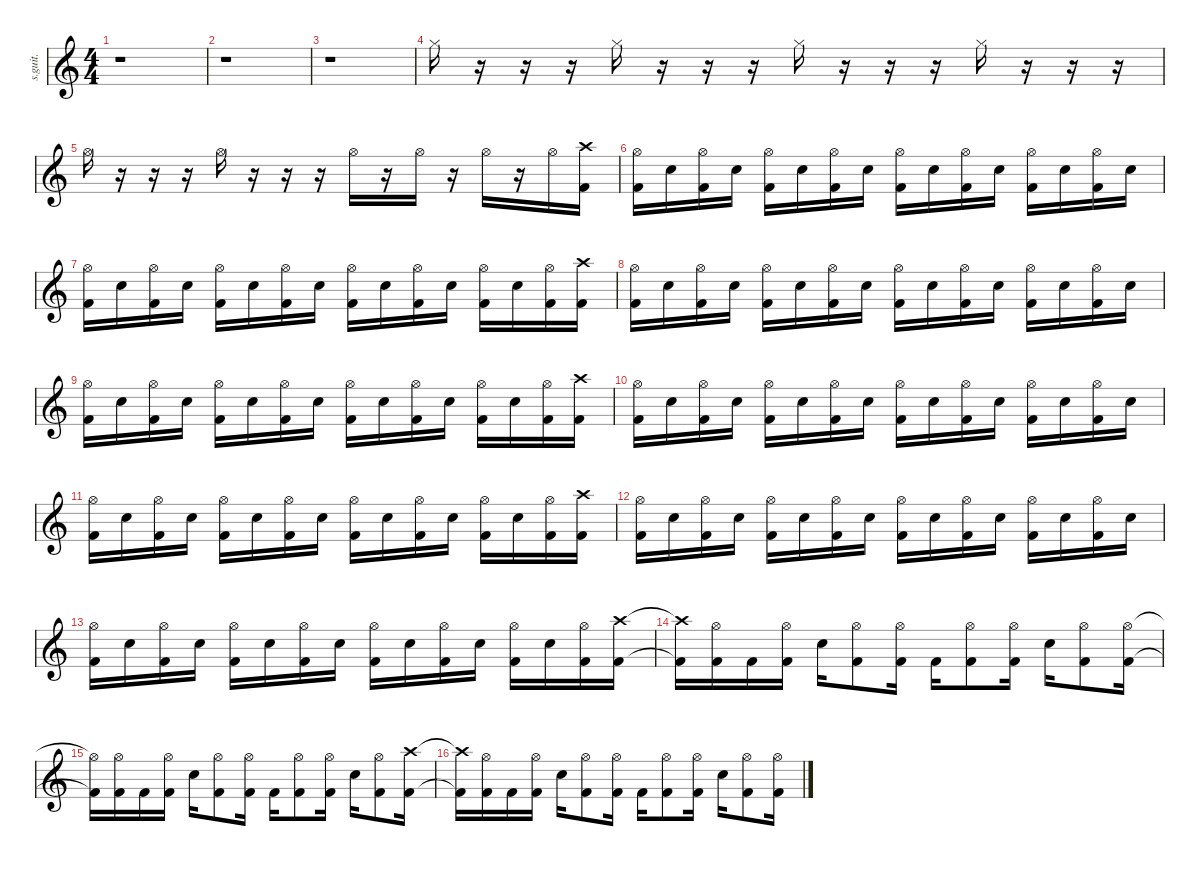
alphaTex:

\defaultSystemsLayout 4
\hideDynamics
\bracketExtendMode nobrackets
\track ("Tomas Haake" "s.guit.") {instrument percussion}
\staff {score}
\articulation defaults
\ts (4 4)
\beaming (8 2 2 2 2)
\tempo (110 hide)
\clef g2
\ks c
r.1{dy f} |
r.1 |
r.1 |
"Hi-Hat (closed)".16{lyrics (0 "") lyrics (1 "") lyrics (2 "") lyrics (3 "") lyrics (4 "")} r.16 r.16 r.16 "Hi-Hat (closed)".16{lyrics (0 "") lyrics (1 "") lyrics (2 "") lyrics (3 "") lyrics (4 "")} r.16 r.16 r.16 "Hi-Hat (closed)".16{lyrics (0 "") lyrics (1 "") lyrics (2 "") lyrics (3 "") lyrics (4 "")} r.16 r.16 r.16 "Hi-Hat (closed)".16{lyrics (0 "") lyrics (1 "") lyrics (2 "") lyrics (3 "") lyrics (4 "")} r.16 r.16 r.16 |
"Hi-Hat (open)".16{lyrics (0 "") lyrics (1 "") lyrics (2 "") lyrics (3 "") lyrics (4 "")} r.16 r.16 r.16 "Hi-Hat (open)".16{lyrics (0 "") lyrics (1 "") lyrics (2 "") lyrics (3 "") lyrics (4 "")} r.16 r.16 r.16 "Hi-Hat (open)".16{lyrics (0 "") lyrics (1 "") lyrics (2 "") lyrics (3 "") lyrics (4 "")} r.16 "Hi-Hat (open)".16{lyrics (0 "") lyrics (1 "") lyrics (2 "") lyrics (3 "") lyrics (4 "")} r.16 "Hi-Hat (open)".16{lyrics (0 "") lyrics (1 "") lyrics (2 "") lyrics (3 "") lyrics (4 "")} r.16 "Hi-Hat (open)".16{lyrics (0 "") lyrics (1 "") lyrics (2 "") lyrics (3 "") lyrics (4 "")} ("Crash high (hit)" "Kick (hit) 2").16{lyrics (0 "") lyrics (1 "") lyrics (2 "") lyrics (3 "") lyrics (4 "")} |
("Hi-Hat (open)" "Kick (hit) 2").16{lyrics (0 "") lyrics (1 "") lyrics (2 "") lyrics (3 "") lyrics (4 "")} "Snare (hit) 2".16{lyrics (0 "") lyrics (1 "") lyrics (2 "") lyrics (3 "") lyrics (4 "")} ("Hi-Hat (open)" "Kick (hit) 2").16{lyrics (0 "") lyrics (1 "") lyrics (2 "") lyrics (3 "") lyrics (4 "")} "Snare (hit) 2".16{lyrics (0 "") lyrics (1 "") lyrics (2 "") lyrics (3 "") lyrics (4 "")} ("Hi-Hat (open)" "Kick (hit) 2").16{lyrics (0 "") lyrics (1 "") lyrics (2 "") lyrics (3 "") lyrics (4 "")} "Snare (hit) 2".16{lyrics (0 "") lyrics (1 "") lyrics (2 "") lyrics (3 "") lyrics (4 "")} ("Hi-Hat (open)" "Kick (hit) 2").16{lyrics (0 "") lyrics (1 "") lyrics (2 "") lyrics (3 "") lyrics (4 "")} "Snare (hit) 2".16{lyrics (0 "") lyrics (1 "") lyrics (2 "") lyrics (3 "") lyrics (4 "")} ("Hi-Hat (open)" "Kick (hit) 2").16{lyrics (0 "") lyrics (1 "") lyrics (2 "") lyrics (3 "") lyrics (4 "")} "Snare (hit) 2".16{lyrics (0 "") lyrics (1 "") lyrics (2 "") lyrics (3 "") lyrics (4 "")} ("Hi-Hat (open)" "Kick (hit) 2").16{lyrics (0 "") lyrics (1 "") lyrics (2 "") lyrics (3 "") lyrics (4 "")} "Snare (hit) 2".16{lyrics (0 "") lyrics (1 "") lyrics (2 "") lyrics (3 "") lyrics (4 "")} ("Hi-Hat (open)" "Kick (hit) 2").16{lyrics (0 "") lyrics (1 "") lyrics (2 "") lyrics (3 "") lyrics (4 "")} "Snare (hit) 2".16{lyrics (0 "") lyrics (1 "") lyrics (2 "") lyrics (3 "") lyrics (4 "")} ("Hi-Hat (open)" "Kick (hit) 2").16{lyrics (0 "") lyrics (1 "") lyrics (2 "") lyrics (3 "") lyrics (4 "")} "Snare (hit) 2".16{lyrics (0 "") lyrics (1 "") lyrics (2 "") lyrics (3 "") lyrics (4 "")} |
("Hi-Hat (open)" "Kick (hit) 2").16{lyrics (0 "") lyrics (1 "") lyrics (2 "") lyrics (3 "") lyrics (4 "")} "Snare (hit) 2".16{lyrics (0 "") lyrics (1 "") lyrics (2 "") lyrics (3 "") lyrics (4 "")} ("Hi-Hat (open)" "Kick (hit) 2").16{lyrics (0 "") lyrics (1 "") lyrics (2 "") lyrics (3 "") lyrics (4 "")} "Snare (hit) 2".16{lyrics (0 "") lyrics (1 "") lyrics (2 "") lyrics (3 "") lyrics (4 "")} ("Hi-Hat (open)" "Kick (hit) 2").16{lyrics (0 "") lyrics (1 "") lyrics (2 "") lyrics (3 "") lyrics (4 "")} "Snare (hit) 2".16{lyrics (0 "") lyrics (1 "") lyrics (2 "") lyrics (3 "") lyrics (4 "")} ("Hi-Hat (open)" "Kick (hit) 2").16{lyrics (0 "") lyrics (1 "") lyrics (2 "") lyrics (3 "") lyrics (4 "")} "Snare (hit) 2".16{lyrics (0 "") lyrics (1 "") lyrics (2 "") lyrics (3 "") lyrics (4 "")} ("Hi-Hat (open)" "Kick (hit) 2").16{lyrics (0 "") lyrics (1 "") lyrics (2 "") lyrics (3 "") lyrics (4 "")} "Snare (hit) 2".16{lyrics (0 "") lyrics (1 "") lyrics (2 "") lyrics (3 "") lyrics (4 "")} ("Hi-Hat (open)" "Kick (hit) 2").16{lyrics (0 "") lyrics (1 "") lyrics (2 "") lyrics (3 "") lyrics (4 "")} "Snare (hit) 2".16{lyrics (0 "") lyrics (1 "") lyrics (2 "") lyrics (3 "") lyrics (4 "")} ("Hi-Hat (open)" "Kick (hit) 2").16{lyrics (0 "") lyrics (1 "") lyrics (2 "") lyrics (3 "") lyrics (4 "")} "Snare (hit) 2".16{lyrics (0 "") lyrics (1 "") lyrics (2 "") lyrics (3 "") lyrics (4 "")} ("Hi-Hat (open)" "Kick (hit) 2").16{lyrics (0 "") lyrics (1 "") lyrics (2 "") lyrics (3 "") lyrics (4 "")} ("Crash high (hit)" "Kick (hit) 2").16{lyrics (0 "") lyrics (1 "") lyrics (2 "") lyrics (3 "") lyrics (4 "")} |
("Hi-Hat (open)" "Kick (hit) 2").16{lyrics (0 "") lyrics (1 "") lyrics (2 "") lyrics (3 "") lyrics (4 "")} "Snare (hit) 2".16{lyrics (0 "") lyrics (1 "") lyrics (2 "") lyrics (3 "") lyrics (4 "")} ("Hi-Hat (open)" "Kick (hit) 2").16{lyrics (0 "") lyrics (1 "") lyrics (2 "") lyrics (3 "") lyrics (4 "")} "Snare (hit) 2".16{lyrics (0 "") lyrics (1 "") lyrics (2 "") lyrics (3 "") lyrics (4 "")} ("Hi-Hat (open)" "Kick (hit) 2").16{lyrics (0 "") lyrics (1 "") lyrics (2 "") lyrics (3 "") lyrics (4 "")} "Snare (hit) 2".16{lyrics (0 "") lyrics (1 "") lyrics (2 "") lyrics (3 "") lyrics (4 "")} ("Hi-Hat (open)" "Kick (hit) 2").16{lyrics (0 "") lyrics (1 "") lyrics (2 "") lyrics (3 "") lyrics (4 "")} "Snare (hit) 2".16{lyrics (0 "") lyrics (1 "") lyrics (2 "") lyrics (3 "") lyrics (4 "")} ("Hi-Hat (open)" "Kick (hit) 2").16{lyrics (0 "") lyrics (1 "") lyrics (2 "") lyrics (3 "") lyrics (4 "")} "Snare (hit) 2".16{lyrics (0 "") lyrics (1 "") lyrics (2 "") lyrics (3 "") lyrics (4 "")} ("Hi-Hat (open)" "Kick (hit) 2").16{lyrics (0 "") lyrics (1 "") lyrics (2 "") lyrics (3 "") lyrics (4 "")} "Snare (hit) 2".16{lyrics (0 "") lyrics (1 "") lyrics (2 "") lyrics (3 "") lyrics (4 "")} ("Hi-Hat (open)" "Kick (hit) 2").16{lyrics (0 "") lyrics (1 "") lyrics (2 "") lyrics (3 "") lyrics (4 "")} "Snare (hit) 2".16{lyrics (0 "") lyrics (1 "") lyrics (2 "") lyrics (3 "") lyrics (4 "")} ("Hi-Hat (open)" "Kick (hit) 2").16{lyrics (0 "") lyrics (1 "") lyrics (2 "") lyrics (3 "") lyrics (4 "")} "Snare (hit) 2".16{lyrics (0 "") lyrics (1 "") lyrics (2 "") lyrics (3 "") lyrics (4 "")} |
("Hi-Hat (open)" "Kick (hit) 2").16{lyrics (0 "") lyrics (1 "") lyrics (2 "") lyrics (3 "") lyrics (4 "")} "Snare (hit) 2".16{lyrics (0 "") lyrics (1 "") lyrics (2 "") lyrics (3 "") lyrics (4 "")} ("Hi-Hat (open)" "Kick (hit) 2").16{lyrics (0 "") lyrics (1 "") lyrics (2 "") lyrics (3 "") lyrics (4 "")} "Snare (hit) 2".16{lyrics (0 "") lyrics (1 "") lyrics (2 "") lyrics (3 "") lyrics (4 "")} ("Hi-Hat (open)" "Kick (hit) 2").16{lyrics (0 "") lyrics (1 "") lyrics (2 "") lyrics (3 "") lyrics (4 "")} "Snare (hit) 2".16{lyrics (0 "") lyrics (1 "") lyrics (2 "") lyrics (3 "") lyrics (4 "")} ("Hi-Hat (open)" "Kick (hit) 2").16{lyrics (0 "") lyrics (1 "") lyrics (2 "") lyrics (3 "") lyrics (4 "")} "Snare (hit) 2".16{lyrics (0 "") lyrics (1 "") lyrics (2 "") lyrics (3 "") lyrics (4 "")} ("Hi-Hat (open)" "Kick (hit) 2").16{lyrics (0 "") lyrics (1 "") lyrics (2 "") lyrics (3 "") lyrics (4 "")} "Snare (hit) 2".16{lyrics (0 "") lyrics (1 "") lyrics (2 "") lyrics (3 "") lyrics (4 "")} ("Hi-Hat (open)" "Kick (hit) 2").16{lyrics (0 "") lyrics (1 "") lyrics (2 "") lyrics (3 "") lyrics (4 "")} "Snare (hit) 2".16{lyrics (0 "") lyrics (1 "") lyrics (2 "") lyrics (3 "") lyrics (4 "")} ("Hi-Hat (open)" "Kick (hit) 2").16{lyrics (0 "") lyrics (1 "") lyrics (2 "") lyrics (3 "") lyrics (4 "")} "Snare (hit) 2".16{lyrics (0 "") lyrics (1 "") lyrics (2 "") lyrics (3 "") lyrics (4 "")} ("Hi-Hat (open)" "Kick (hit) 2").16{lyrics (0 "") lyrics (1 "") lyrics (2 "") lyrics (3 "") lyrics (4 "")} ("Crash high (hit)" "Kick (hit) 2").16{lyrics (0 "") lyrics (1 "") lyrics (2 "") lyrics (3 "") lyrics (4 "")} |
("Hi-Hat (open)" "Kick (hit) 2").16{lyrics (0 "") lyrics (1 "") lyrics (2 "") lyrics (3 "") lyrics (4 "")} "Snare (hit) 2".16{lyrics (0 "") lyrics (1 "") lyrics (2 "") lyrics (3 "") lyrics (4 "")} ("Hi-Hat (open)" "Kick (hit) 2").16{lyrics (0 "") lyrics (1 "") lyrics (2 "") lyrics (3 "") lyrics (4 "")} "Snare (hit) 2".16{lyrics (0 "") lyrics (1 "") lyrics (2 "") lyrics (3 "") lyrics (4 "")} ("Hi-Hat (open)" "Kick (hit) 2").16{lyrics (0 "") lyrics (1 "") lyrics (2 "") lyrics (3 "") lyrics (4 "")} "Snare (hit) 2".16{lyrics (0 "") lyrics (1 "") lyrics (2 "") lyrics (3 "") lyrics (4 "")} ("Hi-Hat (open)" "Kick (hit) 2").16{lyrics (0 "") lyrics (1 "") lyrics (2 "") lyrics (3 "") lyrics (4 "")} "Snare (hit) 2".16{lyrics (0 "") lyrics (1 "") lyrics (2 "") lyrics (3 "") lyrics (4 "")} ("Hi-Hat (open)" "Kick (hit) 2").16{lyrics (0 "") lyrics (1 "") lyrics (2 "") lyrics (3 "") lyrics (4 "")} "Snare (hit) 2".16{lyrics (0 "") lyrics (1 "") lyrics (2 "") lyrics (3 "") lyrics (4 "")} ("Hi-Hat (open)" "Kick (hit) 2").16{lyrics (0 "") lyrics (1 "") lyrics (2 "") lyrics (3 "") lyrics (4 "")} "Snare (hit) 2".16{lyrics (0 "") lyrics (1 "") lyrics (2 "") lyrics (3 "") lyrics (4 "")} ("Hi-Hat (open)" "Kick (hit) 2").16{lyrics (0 "") lyrics (1 "") lyrics (2 "") lyrics (3 "") lyrics (4 "")} "Snare (hit) 2".16{lyrics (0 "") lyrics (1 "") lyrics (2 "") lyrics (3 "") lyrics (4 "")} ("Hi-Hat (open)" "Kick (hit) 2").16{lyrics (0 "") lyrics (1 "") lyrics (2 "") lyrics (3 "") lyrics (4 "")} "Snare (hit) 2".16{lyrics (0 "") lyrics (1 "") lyrics (2 "") lyrics (3 "") lyrics (4 "")} |
("Hi-Hat (open)" "Kick (hit) 2").16{lyrics (0 "") lyrics (1 "") lyrics (2 "") lyrics (3 "") lyrics (4 "")} "Snare (hit) 2".16{lyrics (0 "") lyrics (1 "") lyrics (2 "") lyrics (3 "") lyrics (4 "")} ("Hi-Hat (open)" "Kick (hit) 2").16{lyrics (0 "") lyrics (1 "") lyrics (2 "") lyrics (3 "") lyrics (4 "")} "Snare (hit) 2".16{lyrics (0 "") lyrics (1 "") lyrics (2 "") lyrics (3 "") lyrics (4 "")} ("Hi-Hat (open)" "Kick (hit) 2").16{lyrics (0 "") lyrics (1 "") lyrics (2 "") lyrics (3 "") lyrics (4 "")} "Snare (hit) 2".16{lyrics (0 "") lyrics (1 "") lyrics (2 "") lyrics (3 "") lyrics (4 "")} ("Hi-Hat (open)" "Kick (hit) 2").16{lyrics (0 "") lyrics (1 "") lyrics (2 "") lyrics (3 "") lyrics (4 "")} "Snare (hit) 2".16{lyrics (0 "") lyrics (1 "") lyrics (2 "") lyrics (3 "") lyrics (4 "")} ("Hi-Hat (open)" "Kick (hit) 2").16{lyrics (0 "") lyrics (1 "") lyrics (2 "") lyrics (3 "") lyrics (4 "")} "Snare (hit) 2".16{lyrics (0 "") lyrics (1 "") lyrics (2 "") lyrics (3 "") lyrics (4 "")} ("Hi-Hat (open)" "Kick (hit) 2").16{lyrics (0 "") lyrics (1 "") lyrics (2 "") lyrics (3 "") lyrics (4 "")} "Snare (hit) 2".16{lyrics (0 "") lyrics (1 "") lyrics (2 "") lyrics (3 "") lyrics (4 "")} ("Hi-Hat (open)" "Kick (hit) 2").16{lyrics (0 "") lyrics (1 "") lyrics (2 "") lyrics (3 "") lyrics (4 "")} "Snare (hit) 2".16{lyrics (0 "") lyrics (1 "") lyrics (2 "") lyrics (3 "") lyrics (4 "")} ("Hi-Hat (open)" "Kick (hit) 2").16{lyrics (0 "") lyrics (1 "") lyrics (2 "") lyrics (3 "") lyrics (4 "")} ("Crash high (hit)" "Kick (hit) 2").16{lyrics (0 "") lyrics (1 "") lyrics (2 "") lyrics (3 "") lyrics (4 "")} |
("Hi-Hat (open)" "Kick (hit) 2").16{lyrics (0 "") lyrics (1 "") lyrics (2 "") lyrics (3 "") lyrics (4 "")} "Snare (hit) 2".16{lyrics (0 "") lyrics (1 "") lyrics (2 "") lyrics (3 "") lyrics (4 "")} ("Hi-Hat (open)" "Kick (hit) 2").16{lyrics (0 "") lyrics (1 "") lyrics (2 "") lyrics (3 "") lyrics (4 "")} "Snare (hit) 2".16{lyrics (0 "") lyrics (1 "") lyrics (2 "") lyrics (3 "") lyrics (4 "")} ("Hi-Hat (open)" "Kick (hit) 2").16{lyrics (0 "") lyrics (1 "") lyrics (2 "") lyrics (3 "") lyrics (4 "")} "Snare (hit) 2".16{lyrics (0 "") lyrics (1 "") lyrics (2 "") lyrics (3 "") lyrics (4 "")} ("Hi-Hat (open)" "Kick (hit) 2").16{lyrics (0 "") lyrics (1 "") lyrics (2 "") lyrics (3 "") lyrics (4 "")} "Snare (hit) 2".16{lyrics (0 "") lyrics (1 "") lyrics (2 "") lyrics (3 "") lyrics (4 "")} ("Hi-Hat (open)" "Kick (hit) 2").16{lyrics (0 "") lyrics (1 "") lyrics (2 "") lyrics (3 "") lyrics (4 "")} "Snare (hit) 2".16{lyrics (0 "") lyrics (1 "") lyrics (2 "") lyrics (3 "") lyrics (4 "")} ("Hi-Hat (open)" "Kick (hit) 2").16{lyrics (0 "") lyrics (1 "") lyrics (2 "") lyrics (3 "") lyrics (4 "")} "Snare (hit) 2".16{lyrics (0 "") lyrics (1 "") lyrics (2 "") lyrics (3 "") lyrics (4 "")} ("Hi-Hat (open)" "Kick (hit) 2").16{lyrics (0 "") lyrics (1 "") lyrics (2 "") lyrics (3 "") lyrics (4 "")} "Snare (hit) 2".16{lyrics (0 "") lyrics (1 "") lyrics (2 "") lyrics (3 "") lyrics (4 "")} ("Hi-Hat (open)" "Kick (hit) 2").16{lyrics (0 "") lyrics (1 "") lyrics (2 "") lyrics (3 "") lyrics (4 "")} "Snare (hit) 2".16{lyrics (0 "") lyrics (1 "") lyrics (2 "") lyrics (3 "") lyrics (4 "")} |
("Hi-Hat (open)" "Kick (hit) 2").16{lyrics (0 "") lyrics (1 "") lyrics (2 "") lyrics (3 "") lyrics (4 "")} "Snare (hit) 2".16{lyrics (0 "") lyrics (1 "") lyrics (2 "") lyrics (3 "") lyrics (4 "")} ("Hi-Hat (open)" "Kick (hit) 2").16{lyrics (0 "") lyrics (1 "") lyrics (2 "") lyrics (3 "") lyrics (4 "")} "Snare (hit) 2".16{lyrics (0 "") lyrics (1 "") lyrics (2 "") lyrics (3 "") lyrics (4 "")} ("Hi-Hat (open)" "Kick (hit) 2").16{lyrics (0 "") lyrics (1 "") lyrics (2 "") lyrics (3 "") lyrics (4 "")} "Snare (hit) 2".16{lyrics (0 "") lyrics (1 "") lyrics (2 "") lyrics (3 "") lyrics (4 "")} ("Hi-Hat (open)" "Kick (hit) 2").16{lyrics (0 "") lyrics (1 "") lyrics (2 "") lyrics (3 "") lyrics (4 "")} "Snare (hit) 2".16{lyrics (0 "") lyrics (1 "") lyrics (2 "") lyrics (3 "") lyrics (4 "")} ("Hi-Hat (open)" "Kick (hit) 2").16{lyrics (0 "") lyrics (1 "") lyrics (2 "") lyrics (3 "") lyrics (4 "")} "Snare (hit) 2".16{lyrics (0 "") lyrics (1 "") lyrics (2 "") lyrics (3 "") lyrics (4 "")} ("Hi-Hat (open)" "Kick (hit) 2").16{lyrics (0 "") lyrics (1 "") lyrics (2 "") lyrics (3 "") lyrics (4 "")} "Snare (hit) 2".16{lyrics (0 "") lyrics (1 "") lyrics (2 "") lyrics (3 "") lyrics (4 "")} ("Hi-Hat (open)" "Kick (hit) 2").16{lyrics (0 "") lyrics (1 "") lyrics (2 "") lyrics (3 "") lyrics (4 "")} "Snare (hit) 2".16{lyrics (0 "") lyrics (1 "") lyrics (2 "") lyrics (3 "") lyrics (4 "")} ("Hi-Hat (open)" "Kick (hit) 2").16{lyrics (0 "") lyrics (1 "") lyrics (2 "") lyrics (3 "") lyrics (4 "")} ("Crash high (hit)" "Kick (hit) 2").16{lyrics (0 "") lyrics (1 "") lyrics (2 "") lyrics (3 "") lyrics (4 "")} |
("Crash high (hit)"{t} "Kick (hit) 2"{t}).16{lyrics (0 "") lyrics (1 "") lyrics (2 "") lyrics (3 "") lyrics (4 "")} ("Hi-Hat (open)" "Kick (hit) 2").16{lyrics (0 "") lyrics (1 "") lyrics (2 "") lyrics (3 "") lyrics (4 "")} "Kick (hit) 2".16{lyrics (0 "") lyrics (1 "") lyrics (2 "") lyrics (3 "") lyrics (4 "")} ("Hi-Hat (open)" "Kick (hit) 2").16{lyrics (0 "") lyrics (1 "") lyrics (2 "") lyrics (3 "") lyrics (4 "")} "Snare (hit) 2".16{lyrics (0 "") lyrics (1 "") lyrics (2 "") lyrics (3 "") lyrics (4 "")} ("Hi-Hat (open)" "Kick (hit) 2").8{lyrics (0 "") lyrics (1 "") lyrics (2 "") lyrics (3 "") lyrics (4 "")} ("Hi-Hat (open)" "Kick (hit) 2").16{lyrics (0 "") lyrics (1 "") lyrics (2 "") lyrics (3 "") lyrics (4 "")} "Kick (hit) 2".16{lyrics (0 "") lyrics (1 "") lyrics (2 "") lyrics (3 "") lyrics (4 "")} ("Hi-Hat (open)" "Kick (hit) 2").8{lyrics (0 "") lyrics (1 "") lyrics (2 "") lyrics (3 "") lyrics (4 "")} ("Hi-Hat (open)" "Kick (hit) 2").16{lyrics (0 "") lyrics (1 "") lyrics (2 "") lyrics (3 "") lyrics (4 "")} "Snare (hit) 2".16{lyrics (0 "") lyrics (1 "") lyrics (2 "") lyrics (3 "") lyrics (4 "")} ("Hi-Hat (open)" "Kick (hit) 2").8{lyrics (0 "") lyrics (1 "") lyrics (2 "") lyrics (3 "") lyrics (4 "")} ("Hi-Hat (open)" "Kick (hit) 2").16{lyrics (0 "") lyrics (1 "") lyrics (2 "") lyrics (3 "") lyrics (4 "")} |
("Hi-Hat (open)"{t} "Kick (hit) 2"{t}).16{lyrics (0 "") lyrics (1 "") lyrics (2 "") lyrics (3 "") lyrics (4 "")} ("Hi-Hat (open)" "Kick (hit) 2").16{lyrics (0 "") lyrics (1 "") lyrics (2 "") lyrics (3 "") lyrics (4 "")} "Kick (hit) 2".16{lyrics (0 "") lyrics (1 "") lyrics (2 "") lyrics (3 "") lyrics (4 "")} ("Hi-Hat (open)" "Kick (hit) 2").16{lyrics (0 "") lyrics (1 "") lyrics (2 "") lyrics (3 "") lyrics (4 "")} "Snare (hit) 2".16{lyrics (0 "") lyrics (1 "") lyrics (2 "") lyrics (3 "") lyrics (4 "")} ("Hi-Hat (open)" "Kick (hit) 2").8{lyrics (0 "") lyrics (1 "") lyrics (2 "") lyrics (3 "") lyrics (4 "")} ("Hi-Hat (open)" "Kick (hit) 2").16{lyrics (0 "") lyrics (1 "") lyrics (2 "") lyrics (3 "") lyrics (4 "")} "Kick (hit) 2".16{lyrics (0 "") lyrics (1 "") lyrics (2 "") lyrics (3 "") lyrics (4 "")} ("Hi-Hat (open)" "Kick (hit) 2").8{lyrics (0 "") lyrics (1 "") lyrics (2 "") lyrics (3 "") lyrics (4 "")} ("Hi-Hat (open)" "Kick (hit) 2").16{lyrics (0 "") lyrics (1 "") lyrics (2 "") lyrics (3 "") lyrics (4 "")} "Snare (hit) 2".16{lyrics (0 "") lyrics (1 "") lyrics (2 "") lyrics (3 "") lyrics (4 "")} ("Hi-Hat (open)" "Kick (hit) 2").8{lyrics (0 "") lyrics (1 "") lyrics (2 "") lyrics (3 "") lyrics (4 "")} ("Crash high (hit)" "Kick (hit) 2").16{lyrics (0 "") lyrics (1 "") lyrics (2 "") lyrics (3 "") lyrics (4 "")} |
("Crash high (hit)"{t} "Kick (hit) 2"{t}).16{lyrics (0 "") lyrics (1 "") lyrics (2 "") lyrics (3 "") lyrics (4 "")} ("Hi-Hat (open)" "Kick (hit) 2").16{lyrics (0 "") lyrics (1 "") lyrics (2 "") lyrics (3 "") lyrics (4 "")} "Kick (hit) 2".16{lyrics (0 "") lyrics (1 "") lyrics (2 "") lyrics (3 "") lyrics (4 "")} ("Hi-Hat (open)" "Kick (hit) 2").16{lyrics (0 "") lyrics (1 "") lyrics (2 "") lyrics (3 "") lyrics (4 "")} "Snare (hit) 2".16{lyrics (0 "") lyrics (1 "") lyrics (2 "") lyrics (3 "") lyrics (4 "")} ("Hi-Hat (open)" "Kick (hit) 2").8{lyrics (0 "") lyrics (1 "") lyrics (2 "") lyrics (3 "") lyrics (4 "")} ("Hi-Hat (open)" "Kick (hit) 2").16{lyrics (0 "") lyrics (1 "") lyrics (2 "") lyrics (3 "") lyrics (4 "")} "Kick (hit) 2".16{lyrics (0 "") lyrics (1 "") lyrics (2 "") lyrics (3 "") lyrics (4 "")} ("Hi-Hat (open)" "Kick (hit) 2").8{lyrics (0 "") lyrics (1 "") lyrics (2 "") lyrics (3 "") lyrics (4 "")} ("Hi-Hat (open)" "Kick (hit) 2").16{lyrics (0 "") lyrics (1 "") lyrics (2 "") lyrics (3 "") lyrics (4 "")} "Snare (hit) 2".16{lyrics (0 "") lyrics (1 "") lyrics (2 "") lyrics (3 "") lyrics (4 "")} ("Hi-Hat (open)" "Kick (hit) 2").8{lyrics (0 "") lyrics (1 "") lyrics (2 "") lyrics (3 "") lyrics (4 "")} ("Hi-Hat (open)" "Kick (hit) 2").16{lyrics (0 "") lyrics (1 "") lyrics (2 "") lyrics (3 "") lyrics (4 "")}
